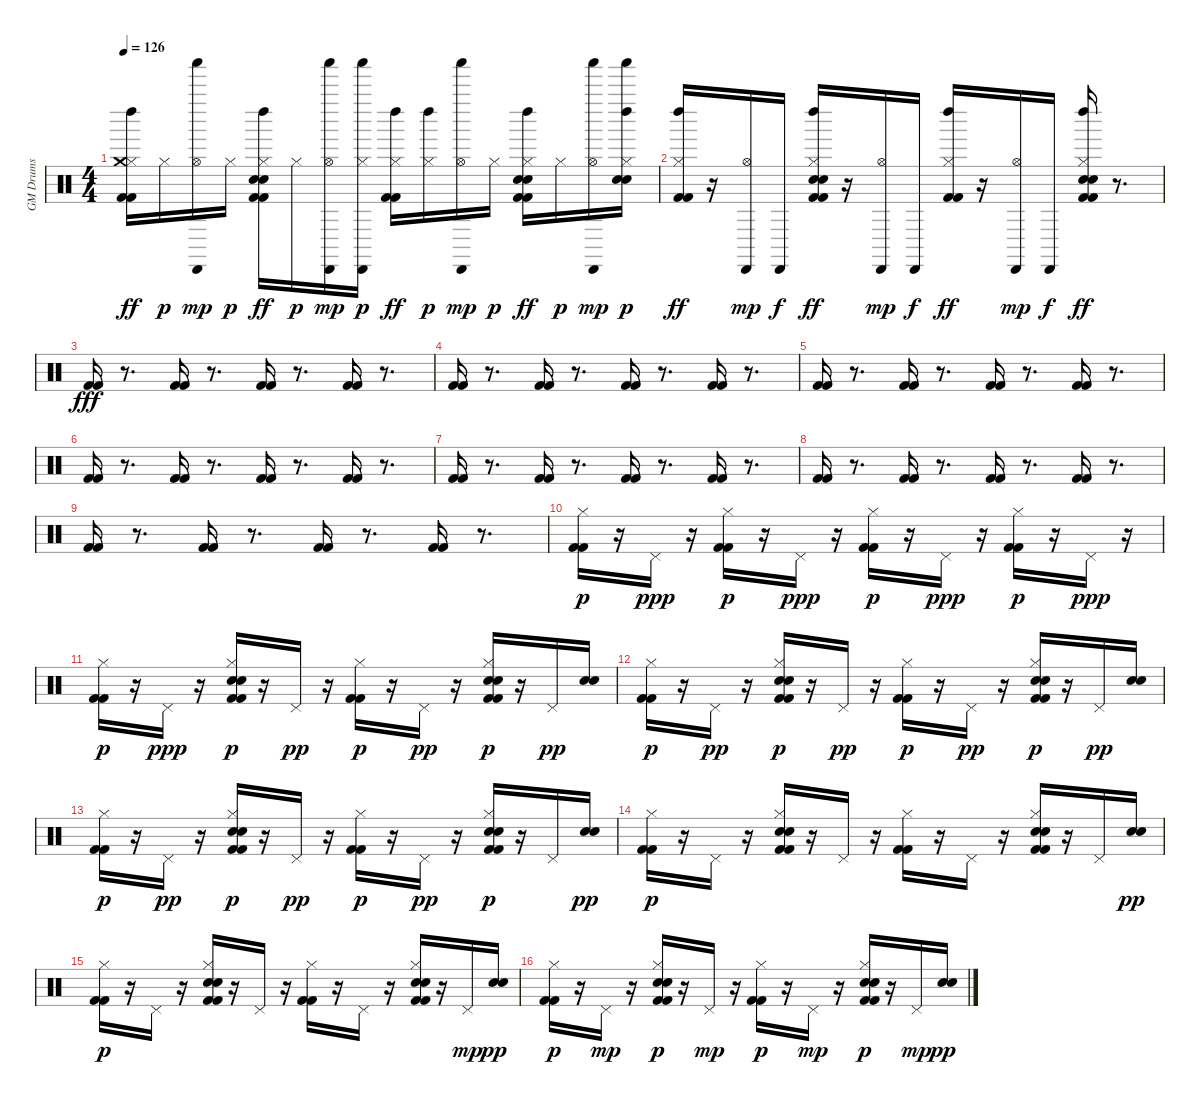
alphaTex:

\track ("GM Drums" "GM Drums") {instrument percussion}
\staff {score}
\articulation defaults
\ts (4 4)
\tempo 126
\clef neutral
\ks c
("Kick (hit) 2" "Kick (hit) 2" "Hi-Hat (closed)" "Crash medium (hit)" "Left Maraca (hit)").16{dy ff} "Hi-Hat (closed)".16{dy p} ("Hi-Hat (open)" "Cabasa (hit)" "Shaker (hit)").16{dy mp} "Hi-Hat (closed)".16{dy p} ("Kick (hit) 2" "Kick (hit) 2" "Hand Clap (hit)" "Electric Snare (hit)" "Hi-Hat (closed)" "Left Maraca (hit)").16{dy ff} "Hi-Hat (closed)".16{dy p} ("Hi-Hat (open)" "Cabasa (hit)" "Shaker (hit)").16{dy mp} ("Hi-Hat (closed)" "Cabasa (hit)" "Shaker (hit)").16{dy p} ("Kick (hit) 2" "Kick (hit) 2" "Hi-Hat (closed)" "Left Maraca (hit)").16{dy ff} ("Hi-Hat (closed)" "Left Maraca (hit)").16{dy p} ("Hi-Hat (open)" "Cabasa (hit)" "Shaker (hit)").16{dy mp} "Hi-Hat (closed)".16{dy p} ("Kick (hit) 2" "Kick (hit) 2" "Hand Clap (hit)" "Electric Snare (hit)" "Hi-Hat (closed)" "Left Maraca (hit)").16{dy ff} "Hi-Hat (closed)".16{dy p} ("Hi-Hat (open)" "Cabasa (hit)" "Shaker (hit)").16{dy mp} ("Hand Clap (hit)" "Electric Snare (hit)" "Hi-Hat (closed)" "Left Maraca (hit)" "Shaker (hit)").16{dy p} |
("Kick (hit) 2" "Kick (hit) 2" "Hi-Hat (closed)" "Left Maraca (hit)").16{dy ff} r.16 ("Hi-Hat (open)" "Cabasa (hit)").16{dy mp} "Cabasa (hit)".16{dy f} ("Kick (hit) 2" "Kick (hit) 2" "Hand Clap (hit)" "Electric Snare (hit)" "Hi-Hat (closed)" "Left Maraca (hit)").16{dy ff} r.16 ("Hi-Hat (open)" "Cabasa (hit)").16{dy mp} "Cabasa (hit)".16{dy f} ("Kick (hit) 2" "Kick (hit) 2" "Hi-Hat (closed)" "Left Maraca (hit)").16{dy ff} r.16 ("Hi-Hat (open)" "Cabasa (hit)").16{dy mp} "Cabasa (hit)".16{dy f} ("Kick (hit) 2" "Kick (hit) 2" "Hand Clap (hit)" "Electric Snare (hit)" "Hi-Hat (closed)" "Left Maraca (hit)").16{dy ff} r.8{d} |
("Kick (hit) 2" "Kick (hit) 2").16{dy fff} r.8{d} ("Kick (hit) 2" "Kick (hit) 2").16 r.8{d} ("Kick (hit) 2" "Kick (hit) 2").16 r.8{d} ("Kick (hit) 2" "Kick (hit) 2").16 r.8{d} |
("Kick (hit) 2" "Kick (hit) 2").16 r.8{d} ("Kick (hit) 2" "Kick (hit) 2").16 r.8{d} ("Kick (hit) 2" "Kick (hit) 2").16 r.8{d} ("Kick (hit) 2" "Kick (hit) 2").16 r.8{d} |
("Kick (hit) 2" "Kick (hit) 2").16 r.8{d} ("Kick (hit) 2" "Kick (hit) 2").16 r.8{d} ("Kick (hit) 2" "Kick (hit) 2").16 r.8{d} ("Kick (hit) 2" "Kick (hit) 2").16 r.8{d} |
("Kick (hit) 2" "Kick (hit) 2").16 r.8{d} ("Kick (hit) 2" "Kick (hit) 2").16 r.8{d} ("Kick (hit) 2" "Kick (hit) 2").16 r.8{d} ("Kick (hit) 2" "Kick (hit) 2").16 r.8{d} |
("Kick (hit) 2" "Kick (hit) 2").16 r.8{d} ("Kick (hit) 2" "Kick (hit) 2").16 r.8{d} ("Kick (hit) 2" "Kick (hit) 2").16 r.8{d} ("Kick (hit) 2" "Kick (hit) 2").16 r.8{d} |
("Kick (hit) 2" "Kick (hit) 2").16 r.8{d} ("Kick (hit) 2" "Kick (hit) 2").16 r.8{d} ("Kick (hit) 2" "Kick (hit) 2").16 r.8{d} ("Kick (hit) 2" "Kick (hit) 2").16 r.8{d} |
("Kick (hit) 2" "Kick (hit) 2").16 r.8{d} ("Kick (hit) 2" "Kick (hit) 2").16 r.8{d} ("Kick (hit) 2" "Kick (hit) 2").16 r.8{d} ("Kick (hit) 2" "Kick (hit) 2").16 r.8{d} |
("Kick (hit) 2" "Kick (hit) 2" "Hi-Hat (closed)").16{dy p} r.16 "Pedal Hi-Hat (hit)".16{dy ppp} r.16 ("Kick (hit) 2" "Kick (hit) 2" "Hi-Hat (closed)").16{dy p} r.16 "Pedal Hi-Hat (hit)".16{dy ppp} r.16 ("Kick (hit) 2" "Kick (hit) 2" "Hi-Hat (closed)").16{dy p} r.16 "Pedal Hi-Hat (hit)".16{dy ppp} r.16 ("Kick (hit) 2" "Kick (hit) 2" "Hi-Hat (closed)").16{dy p} r.16 "Pedal Hi-Hat (hit)".16{dy ppp} r.16 |
("Kick (hit) 2" "Kick (hit) 2" "Hi-Hat (closed)").16{dy p} r.16 "Pedal Hi-Hat (hit)".16{dy ppp} r.16 ("Kick (hit) 2" "Kick (hit) 2" "Hand Clap (hit)" "Electric Snare (hit)" "Hi-Hat (closed)").16{dy p} r.16 "Pedal Hi-Hat (hit)".16{dy pp} r.16 ("Kick (hit) 2" "Kick (hit) 2" "Hi-Hat (closed)").16{dy p} r.16 "Pedal Hi-Hat (hit)".16{dy pp} r.16 ("Kick (hit) 2" "Kick (hit) 2" "Hand Clap (hit)" "Electric Snare (hit)" "Hi-Hat (closed)").16{dy p} r.16 "Pedal Hi-Hat (hit)".16{dy pp} ("Hand Clap (hit)" "Electric Snare (hit)").16 |
("Kick (hit) 2" "Kick (hit) 2" "Hi-Hat (closed)").16{dy p} r.16 "Pedal Hi-Hat (hit)".16{dy pp} r.16 ("Kick (hit) 2" "Kick (hit) 2" "Hand Clap (hit)" "Electric Snare (hit)" "Hi-Hat (closed)").16{dy p} r.16 "Pedal Hi-Hat (hit)".16{dy pp} r.16 ("Kick (hit) 2" "Kick (hit) 2" "Hi-Hat (closed)").16{dy p} r.16 "Pedal Hi-Hat (hit)".16{dy pp} r.16 ("Kick (hit) 2" "Kick (hit) 2" "Hand Clap (hit)" "Electric Snare (hit)" "Hi-Hat (closed)").16{dy p} r.16 "Pedal Hi-Hat (hit)".16{dy pp} ("Hand Clap (hit)" "Electric Snare (hit)").16 |
("Kick (hit) 2" "Kick (hit) 2" "Hi-Hat (closed)").16{dy p} r.16 "Pedal Hi-Hat (hit)".16{dy pp} r.16 ("Kick (hit) 2" "Kick (hit) 2" "Hand Clap (hit)" "Electric Snare (hit)" "Hi-Hat (closed)").16{dy p} r.16 "Pedal Hi-Hat (hit)".16{dy pp} r.16 ("Kick (hit) 2" "Kick (hit) 2" "Hi-Hat (closed)").16{dy p} r.16 "Pedal Hi-Hat (hit)".16{dy pp} r.16 ("Kick (hit) 2" "Kick (hit) 2" "Hand Clap (hit)" "Electric Snare (hit)" "Hi-Hat (closed)").16{dy p} r.16 "Pedal Hi-Hat (hit)".16 ("Hand Clap (hit)" "Electric Snare (hit)").16{dy pp} |
("Kick (hit) 2" "Kick (hit) 2" "Hi-Hat (closed)").16{dy p} r.16 "Pedal Hi-Hat (hit)".16 r.16 ("Kick (hit) 2" "Kick (hit) 2" "Hand Clap (hit)" "Electric Snare (hit)" "Hi-Hat (closed)").16 r.16 "Pedal Hi-Hat (hit)".16 r.16 ("Kick (hit) 2" "Kick (hit) 2" "Hi-Hat (closed)").16 r.16 "Pedal Hi-Hat (hit)".16 r.16 ("Kick (hit) 2" "Kick (hit) 2" "Hand Clap (hit)" "Electric Snare (hit)" "Hi-Hat (closed)").16 r.16 "Pedal Hi-Hat (hit)".16 ("Hand Clap (hit)" "Electric Snare (hit)").16{dy pp} |
("Kick (hit) 2" "Kick (hit) 2" "Hi-Hat (closed)").16{dy p} r.16 "Pedal Hi-Hat (hit)".16 r.16 ("Kick (hit) 2" "Kick (hit) 2" "Hand Clap (hit)" "Electric Snare (hit)" "Hi-Hat (closed)").16 r.16 "Pedal Hi-Hat (hit)".16 r.16 ("Kick (hit) 2" "Kick (hit) 2" "Hi-Hat (closed)").16 r.16 "Pedal Hi-Hat (hit)".16 r.16 ("Kick (hit) 2" "Kick (hit) 2" "Hand Clap (hit)" "Electric Snare (hit)" "Hi-Hat (closed)").16 r.16 "Pedal Hi-Hat (hit)".16{dy mp} ("Hand Clap (hit)" "Electric Snare (hit)").16{dy pp} |
("Kick (hit) 2" "Kick (hit) 2" "Hi-Hat (closed)").16{dy p} r.16 "Pedal Hi-Hat (hit)".16{dy mp} r.16 ("Kick (hit) 2" "Kick (hit) 2" "Hand Clap (hit)" "Electric Snare (hit)" "Hi-Hat (closed)").16{dy p} r.16 "Pedal Hi-Hat (hit)".16{dy mp} r.16 ("Kick (hit) 2" "Kick (hit) 2" "Hi-Hat (closed)").16{dy p} r.16 "Pedal Hi-Hat (hit)".16{dy mp} r.16 ("Kick (hit) 2" "Kick (hit) 2" "Hand Clap (hit)" "Electric Snare (hit)" "Hi-Hat (closed)").16{dy p} r.16 "Pedal Hi-Hat (hit)".16{dy mp} ("Hand Clap (hit)" "Electric Snare (hit)").16{dy pp}
